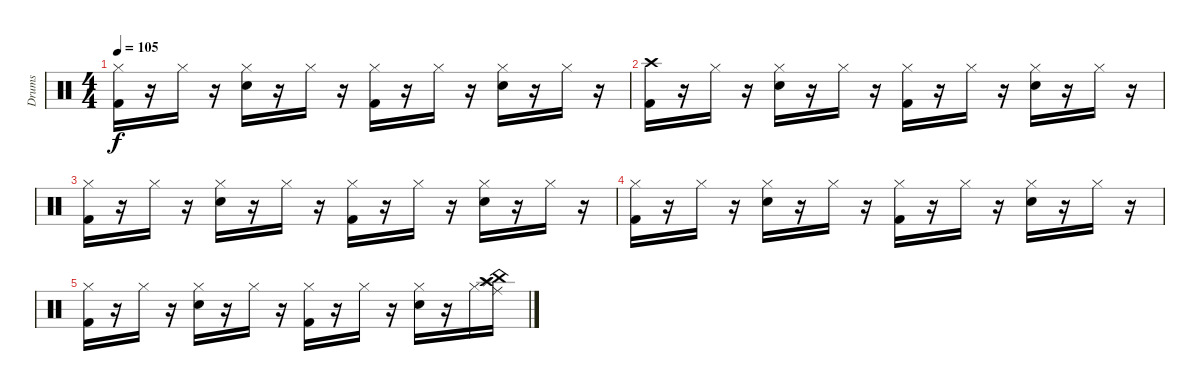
\track ("Drums" "Drums") {instrument percussion}
\staff {score}
\articulation defaults
\ts (4 4)
\tempo 105
\clef neutral
\ks c
("Kick (hit) 2" "Hi-Hat (closed)").16{dy f} r.16 "Hi-Hat (closed)".16 r.16 ("Snare (hit) 2" "Hi-Hat (closed)").16 r.16 "Hi-Hat (closed)".16 r.16 ("Kick (hit) 2" "Hi-Hat (closed)").16 r.16 "Hi-Hat (closed)".16 r.16 ("Snare (hit) 2" "Hi-Hat (closed)").16 r.16 "Hi-Hat (closed)".16 r.16 |
("Kick (hit) 2" "Crash high (hit)").16 r.16 "Hi-Hat (closed)".16 r.16 ("Snare (hit) 2" "Hi-Hat (closed)").16 r.16 "Hi-Hat (closed)".16 r.16 ("Kick (hit) 2" "Hi-Hat (closed)").16 r.16 "Hi-Hat (closed)".16 r.16 ("Snare (hit) 2" "Hi-Hat (closed)").16 r.16 "Hi-Hat (closed)".16 r.16 |
("Kick (hit) 2" "Hi-Hat (closed)").16 r.16 "Hi-Hat (closed)".16 r.16 ("Snare (hit) 2" "Hi-Hat (closed)").16 r.16 "Hi-Hat (closed)".16 r.16 ("Kick (hit) 2" "Hi-Hat (closed)").16 r.16 "Hi-Hat (closed)".16 r.16 ("Snare (hit) 2" "Hi-Hat (closed)").16 r.16 "Hi-Hat (closed)".16 r.16 |
("Kick (hit) 2" "Hi-Hat (closed)").16 r.16 "Hi-Hat (closed)".16 r.16 ("Snare (hit) 2" "Hi-Hat (closed)").16 r.16 "Hi-Hat (closed)".16 r.16 ("Kick (hit) 2" "Hi-Hat (closed)").16 r.16 "Hi-Hat (closed)".16 r.16 ("Snare (hit) 2" "Hi-Hat (closed)").16 r.16 "Hi-Hat (closed)".16 r.16 |
("Kick (hit) 2" "Hi-Hat (closed)").16 r.16 "Hi-Hat (closed)".16 r.16 ("Snare (hit) 2" "Hi-Hat (closed)").16 r.16 "Hi-Hat (closed)".16 r.16 ("Kick (hit) 2" "Hi-Hat (closed)").16 r.16 "Hi-Hat (closed)".16 r.16 ("Snare (hit) 2" "Hi-Hat (closed)").16 r.16 "Hi-Hat (closed)".16 ("Ride (middle)" "China (hit)" "Splash (hit)" "Crash high (hit)").16
